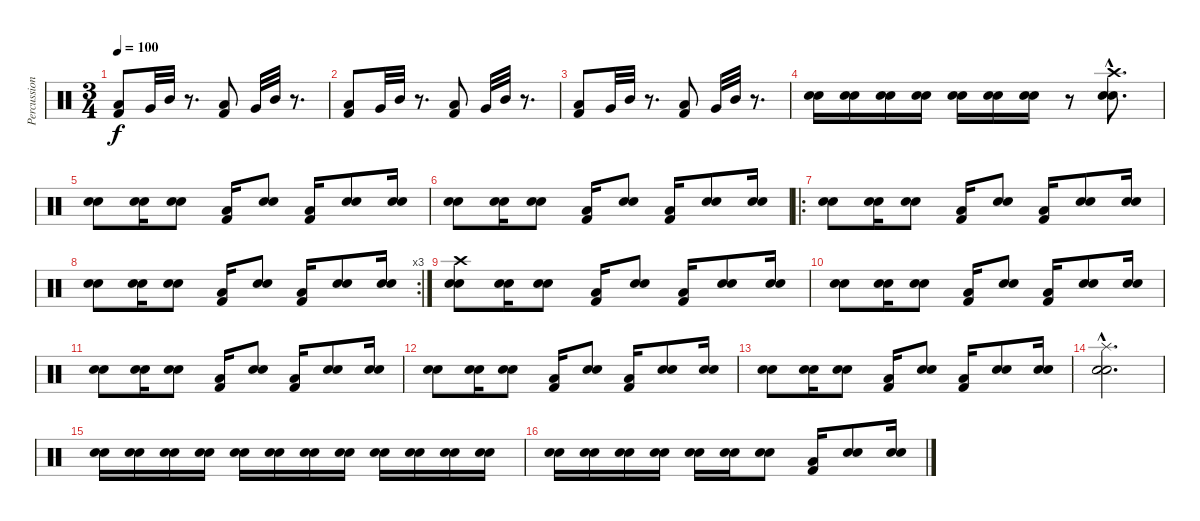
\track ("Percussions" "Percussion") {instrument percussion}
\staff {score}
\articulation defaults
\ts (3 4)
\tempo 100
\clef neutral
\ks c
("Kick (hit) 2" "Low Floor Tom (hit)").8{dy f} "Very Low Tom (hit)".32 "Mid Tom (hit)".32 r.8{d} ("Kick (hit) 2" "Low Floor Tom (hit)").8 "Very Low Tom (hit)".32 "Mid Tom (hit)".32 r.8{d} |
("Kick (hit) 2" "Low Floor Tom (hit)").8 "Very Low Tom (hit)".32 "Mid Tom (hit)".32 r.8{d} ("Kick (hit) 2" "Low Floor Tom (hit)").8 "Very Low Tom (hit)".32 "Mid Tom (hit)".32 r.8{d} |
("Kick (hit) 2" "Low Floor Tom (hit)").8 "Very Low Tom (hit)".32 "Mid Tom (hit)".32 r.8{d} ("Kick (hit) 2" "Low Floor Tom (hit)").8 "Very Low Tom (hit)".32 "Mid Tom (hit)".32 r.8{d} |
("Snare (hit) 2" "Electric Snare (hit)").16 ("Snare (hit) 2" "Electric Snare (hit)").16 ("Snare (hit) 2" "Electric Snare (hit)").16 ("Snare (hit) 2" "Electric Snare (hit)").16 ("Snare (hit) 2" "Electric Snare (hit)").16 ("Snare (hit) 2" "Electric Snare (hit)").16 ("Snare (hit) 2" "Electric Snare (hit)").16 r.8 ("Crash high (hit)"{hac} "Snare (hit) 2"{hac} "Electric Snare (hit)"{hac}).8{d} |
("Snare (hit) 2" "Electric Snare (hit)").8 ("Snare (hit) 2" "Electric Snare (hit)").16 ("Snare (hit) 2" "Electric Snare (hit)").8 ("Kick (hit) 2" "Low Floor Tom (hit)").16 ("Snare (hit) 2" "Electric Snare (hit)").8 ("Kick (hit) 2" "Low Floor Tom (hit)").16 ("Snare (hit) 2" "Electric Snare (hit)").8 ("Snare (hit) 2" "Electric Snare (hit)").16 |
("Snare (hit) 2" "Electric Snare (hit)").8 ("Snare (hit) 2" "Electric Snare (hit)").16 ("Snare (hit) 2" "Electric Snare (hit)").8 ("Kick (hit) 2" "Low Floor Tom (hit)").16 ("Snare (hit) 2" "Electric Snare (hit)").8 ("Kick (hit) 2" "Low Floor Tom (hit)").16 ("Snare (hit) 2" "Electric Snare (hit)").8 ("Snare (hit) 2" "Electric Snare (hit)").16 |
\ro
("Snare (hit) 2" "Electric Snare (hit)").8 ("Snare (hit) 2" "Electric Snare (hit)").16 ("Snare (hit) 2" "Electric Snare (hit)").8 ("Kick (hit) 2" "Low Floor Tom (hit)").16 ("Snare (hit) 2" "Electric Snare (hit)").8 ("Kick (hit) 2" "Low Floor Tom (hit)").16 ("Snare (hit) 2" "Electric Snare (hit)").8 ("Snare (hit) 2" "Electric Snare (hit)").16 |
\rc 3
("Snare (hit) 2" "Electric Snare (hit)").8 ("Snare (hit) 2" "Electric Snare (hit)").16 ("Snare (hit) 2" "Electric Snare (hit)").8 ("Kick (hit) 2" "Low Floor Tom (hit)").16 ("Snare (hit) 2" "Electric Snare (hit)").8 ("Kick (hit) 2" "Low Floor Tom (hit)").16 ("Snare (hit) 2" "Electric Snare (hit)").8 ("Snare (hit) 2" "Electric Snare (hit)").16 |
("Crash high (hit)" "Snare (hit) 2" "Electric Snare (hit)").8 ("Snare (hit) 2" "Electric Snare (hit)").16 ("Snare (hit) 2" "Electric Snare (hit)").8 ("Kick (hit) 2" "Low Floor Tom (hit)").16 ("Snare (hit) 2" "Electric Snare (hit)").8 ("Kick (hit) 2" "Low Floor Tom (hit)").16 ("Snare (hit) 2" "Electric Snare (hit)").8 ("Snare (hit) 2" "Electric Snare (hit)").16 |
("Snare (hit) 2" "Electric Snare (hit)").8 ("Snare (hit) 2" "Electric Snare (hit)").16 ("Snare (hit) 2" "Electric Snare (hit)").8 ("Kick (hit) 2" "Low Floor Tom (hit)").16 ("Snare (hit) 2" "Electric Snare (hit)").8 ("Kick (hit) 2" "Low Floor Tom (hit)").16 ("Snare (hit) 2" "Electric Snare (hit)").8 ("Snare (hit) 2" "Electric Snare (hit)").16 |
("Snare (hit) 2" "Electric Snare (hit)").8 ("Snare (hit) 2" "Electric Snare (hit)").16 ("Snare (hit) 2" "Electric Snare (hit)").8 ("Kick (hit) 2" "Low Floor Tom (hit)").16 ("Snare (hit) 2" "Electric Snare (hit)").8 ("Kick (hit) 2" "Low Floor Tom (hit)").16 ("Snare (hit) 2" "Electric Snare (hit)").8 ("Snare (hit) 2" "Electric Snare (hit)").16 |
("Snare (hit) 2" "Electric Snare (hit)").8 ("Snare (hit) 2" "Electric Snare (hit)").16 ("Snare (hit) 2" "Electric Snare (hit)").8 ("Kick (hit) 2" "Low Floor Tom (hit)").16 ("Snare (hit) 2" "Electric Snare (hit)").8 ("Kick (hit) 2" "Low Floor Tom (hit)").16 ("Snare (hit) 2" "Electric Snare (hit)").8 ("Snare (hit) 2" "Electric Snare (hit)").16 |
("Snare (hit) 2" "Electric Snare (hit)").8 ("Snare (hit) 2" "Electric Snare (hit)").16 ("Snare (hit) 2" "Electric Snare (hit)").8 ("Kick (hit) 2" "Low Floor Tom (hit)").16 ("Snare (hit) 2" "Electric Snare (hit)").8 ("Kick (hit) 2" "Low Floor Tom (hit)").16 ("Snare (hit) 2" "Electric Snare (hit)").8 ("Snare (hit) 2" "Electric Snare (hit)").16 |
("Splash (hit)"{hac} "Snare (hit) 2"{hac} "Electric Snare (hit)"{hac}).2{d} |
("Snare (hit) 2" "Electric Snare (hit)").16 ("Snare (hit) 2" "Electric Snare (hit)").16 ("Snare (hit) 2" "Electric Snare (hit)").16 ("Snare (hit) 2" "Electric Snare (hit)").16 ("Snare (hit) 2" "Electric Snare (hit)").16 ("Snare (hit) 2" "Electric Snare (hit)").16 ("Snare (hit) 2" "Electric Snare (hit)").16 ("Snare (hit) 2" "Electric Snare (hit)").16 ("Snare (hit) 2" "Electric Snare (hit)").16 ("Snare (hit) 2" "Electric Snare (hit)").16 ("Snare (hit) 2" "Electric Snare (hit)").16 ("Snare (hit) 2" "Electric Snare (hit)").16 |
("Snare (hit) 2" "Electric Snare (hit)").16 ("Snare (hit) 2" "Electric Snare (hit)").16 ("Snare (hit) 2" "Electric Snare (hit)").16 ("Snare (hit) 2" "Electric Snare (hit)").16 ("Snare (hit) 2" "Electric Snare (hit)").16 ("Snare (hit) 2" "Electric Snare (hit)").16 ("Snare (hit) 2" "Electric Snare (hit)").8 ("Kick (hit) 2" "Low Floor Tom (hit)").16 ("Snare (hit) 2" "Electric Snare (hit)").8 ("Snare (hit) 2" "Electric Snare (hit)").16
